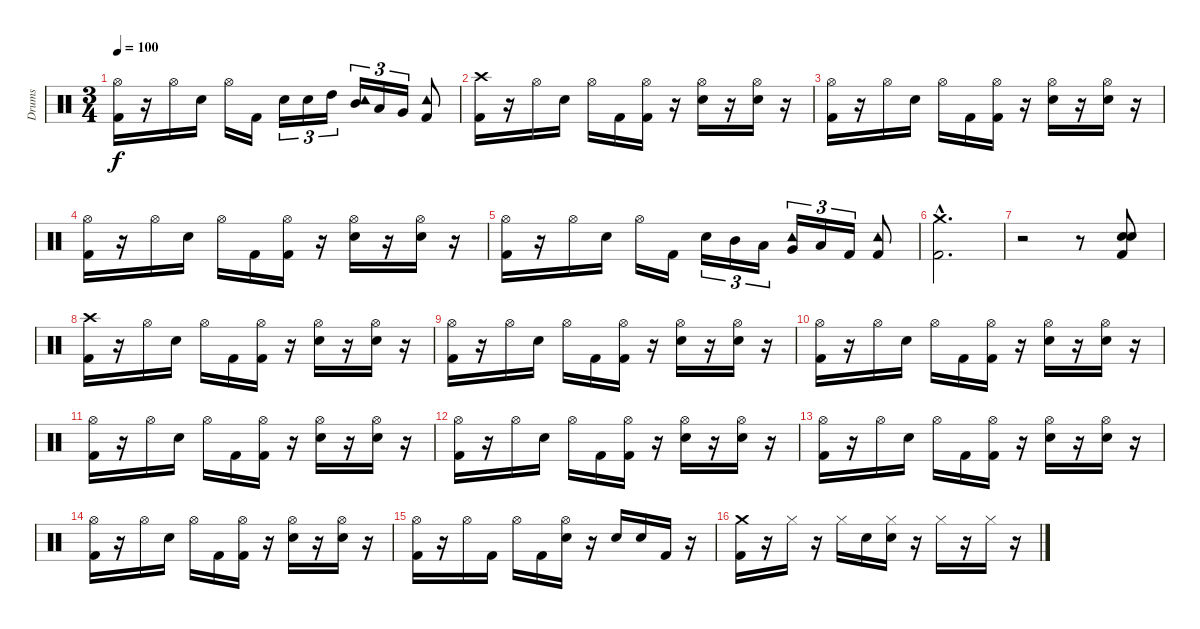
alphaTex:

\track ("Drums" "Drums") {instrument percussion}
\staff {score}
\articulation defaults
\ts (3 4)
\tempo 100
\clef neutral
\ks c
("Hi-Hat (open)" "Kick (hit) 2").16{dy f} r.16 "Hi-Hat (open)".16 "Snare (hit) 2".16 "Hi-Hat (open)".16 "Kick (hit) 2".16 "Snare (hit) 2".16{tu (3 2)} "Snare (hit) 2".16{tu (3 2)} "High Tom (hit)".16{tu (3 2)} ("Tambourine (hit)" "Mid Tom (hit)").16{tu (3 2)} "Low Tom (hit)".16{tu (3 2)} "Very Low Tom (hit)".16{tu (3 2)} ("Tambourine (hit)" "Kick (hit) 2").8 |
("Crash high (hit)" "Kick (hit) 2").16 r.16 "Hi-Hat (open)".16 "Snare (hit) 2".16 "Hi-Hat (open)".16 "Kick (hit) 2".16 ("Hi-Hat (open)" "Kick (hit) 2").16 r.16 ("Hi-Hat (open)" "Snare (hit) 2").16 r.16 ("Hi-Hat (open)" "Snare (hit) 2").16 r.16 |
("Hi-Hat (open)" "Kick (hit) 2").16 r.16 "Hi-Hat (open)".16 "Snare (hit) 2".16 "Hi-Hat (open)".16 "Kick (hit) 2".16 ("Hi-Hat (open)" "Kick (hit) 2").16 r.16 ("Hi-Hat (open)" "Snare (hit) 2").16 r.16 ("Hi-Hat (open)" "Snare (hit) 2").16 r.16 |
("Hi-Hat (open)" "Kick (hit) 2").16 r.16 "Hi-Hat (open)".16 "Snare (hit) 2".16 "Hi-Hat (open)".16 "Kick (hit) 2".16 ("Hi-Hat (open)" "Kick (hit) 2").16 r.16 ("Hi-Hat (open)" "Snare (hit) 2").16 r.16 ("Hi-Hat (open)" "Snare (hit) 2").16 r.16 |
("Hi-Hat (open)" "Kick (hit) 2").16 r.16 "Hi-Hat (open)".16 "Snare (hit) 2".16 "Hi-Hat (open)".16 "Kick (hit) 2".16 "Snare (hit) 2".16{tu (3 2)} "Mid Tom (hit)".16{tu (3 2)} "Low Tom (hit)".16{tu (3 2)} ("Tambourine (hit)" "Very Low Tom (hit)").16{tu (3 2)} "Low Floor Tom (hit)".16{tu (3 2)} "Kick (hit) 2".16{tu (3 2)} ("Tambourine (hit)" "Kick (hit) 2").8 |
("Crash medium (hit)"{hac} "Kick (hit) 2"{hac}).2{d} |
r.2 r.8 ("Kick (hit) 2" "Snare (hit) 2" "Snare (hit) 2").8 |
("Crash high (hit)" "Kick (hit) 2").16 r.16 "Hi-Hat (open)".16 "Snare (hit) 2".16 "Hi-Hat (open)".16 "Kick (hit) 2".16 ("Hi-Hat (open)" "Kick (hit) 2").16 r.16 ("Hi-Hat (open)" "Snare (hit) 2").16 r.16 ("Hi-Hat (open)" "Snare (hit) 2").16 r.16 |
("Hi-Hat (open)" "Kick (hit) 2").16 r.16 "Hi-Hat (open)".16 "Snare (hit) 2".16 "Hi-Hat (open)".16 "Kick (hit) 2".16 ("Hi-Hat (open)" "Kick (hit) 2").16 r.16 ("Hi-Hat (open)" "Snare (hit) 2").16 r.16 ("Hi-Hat (open)" "Snare (hit) 2").16 r.16 |
("Hi-Hat (open)" "Kick (hit) 2").16 r.16 "Hi-Hat (open)".16 "Snare (hit) 2".16 "Hi-Hat (open)".16 "Kick (hit) 2".16 ("Hi-Hat (open)" "Kick (hit) 2").16 r.16 ("Hi-Hat (open)" "Snare (hit) 2").16 r.16 ("Hi-Hat (open)" "Snare (hit) 2").16 r.16 |
("Hi-Hat (open)" "Kick (hit) 2").16 r.16 "Hi-Hat (open)".16 "Snare (hit) 2".16 "Hi-Hat (open)".16 "Kick (hit) 2".16 ("Hi-Hat (open)" "Kick (hit) 2").16 r.16 ("Hi-Hat (open)" "Snare (hit) 2").16 r.16 ("Hi-Hat (open)" "Snare (hit) 2").16 r.16 |
("Hi-Hat (open)" "Kick (hit) 2").16 r.16 "Hi-Hat (open)".16 "Snare (hit) 2".16 "Hi-Hat (open)".16 "Kick (hit) 2".16 ("Hi-Hat (open)" "Kick (hit) 2").16 r.16 ("Hi-Hat (open)" "Snare (hit) 2").16 r.16 ("Hi-Hat (open)" "Snare (hit) 2").16 r.16 |
("Hi-Hat (open)" "Kick (hit) 2").16 r.16 "Hi-Hat (open)".16 "Snare (hit) 2".16 "Hi-Hat (open)".16 "Kick (hit) 2".16 ("Hi-Hat (open)" "Kick (hit) 2").16 r.16 ("Hi-Hat (open)" "Snare (hit) 2").16 r.16 ("Hi-Hat (open)" "Snare (hit) 2").16 r.16 |
("Hi-Hat (open)" "Kick (hit) 2").16 r.16 "Hi-Hat (open)".16 "Snare (hit) 2".16 "Hi-Hat (open)".16 "Kick (hit) 2".16 ("Hi-Hat (open)" "Kick (hit) 2").16 r.16 ("Hi-Hat (open)" "Snare (hit) 2").16 r.16 ("Hi-Hat (open)" "Snare (hit) 2").16 r.16 |
("Hi-Hat (open)" "Kick (hit) 2").16 r.16 "Hi-Hat (open)".16 "Kick (hit) 2".16 "Hi-Hat (open)".16 "Kick (hit) 2".16 ("Hi-Hat (open)" "Snare (hit) 2").16 r.16 "Snare (hit) 2".16 "Snare (hit) 2".16 "Kick (hit) 2".16 r.16 |
("Crash medium (hit)" "Kick (hit) 2").16 r.16 "Hi-Hat (closed)".16 r.16 "Hi-Hat (closed)".16 "Snare (hit) 2".16 ("Hi-Hat (closed)" "Snare (hit) 2").16 r.16 "Hi-Hat (closed)".16 r.16 "Hi-Hat (closed)".16 r.16
